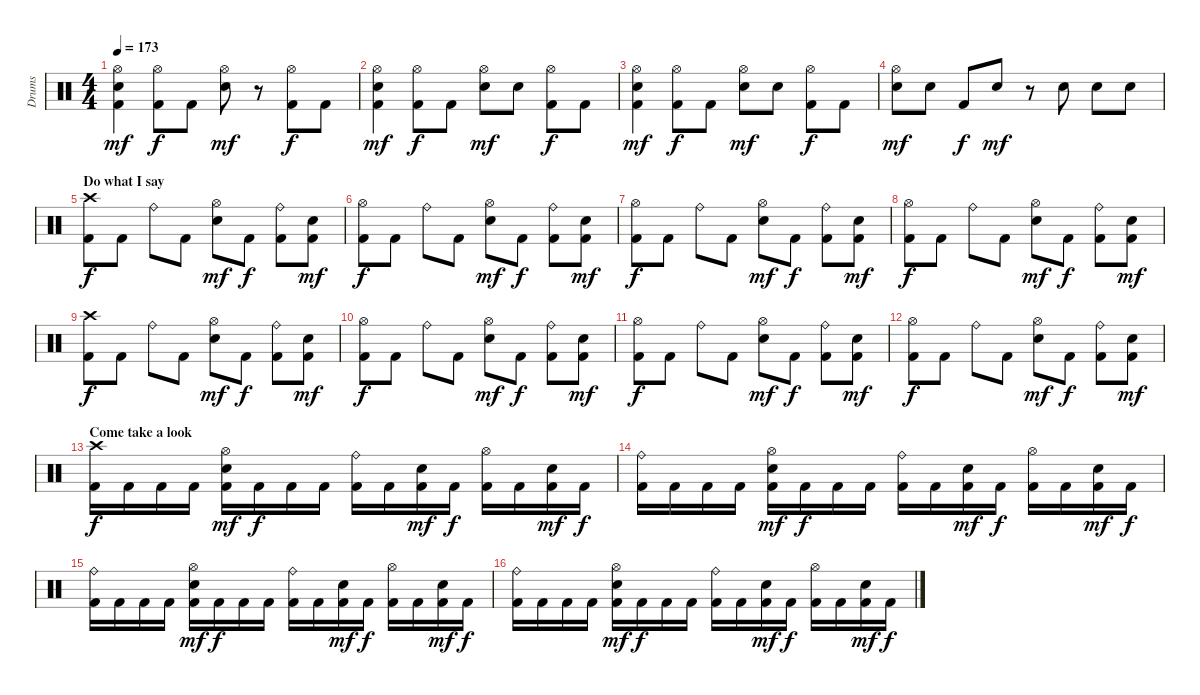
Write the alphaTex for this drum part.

\track ("Drums" "Drums") {instrument percussion}
\staff {score}
\articulation defaults
\ts (4 4)
\tempo 173
\clef neutral
\ks c
("Hi-Hat (open)" "Snare (hit) 2" "Kick (hit) 2").4{dy mf} ("Hi-Hat (open)" "Kick (hit) 2").8{dy f} "Kick (hit) 2".8 ("Hi-Hat (open)" "Snare (hit) 2").8{dy mf} r.8 ("Hi-Hat (open)" "Kick (hit) 2").8{dy f} "Kick (hit) 2".8 |
("Hi-Hat (open)" "Snare (hit) 2" "Kick (hit) 2").4{dy mf} ("Hi-Hat (open)" "Kick (hit) 2").8{dy f} "Kick (hit) 2".8 ("Hi-Hat (open)" "Snare (hit) 2").8{dy mf} "Snare (hit) 2".8 ("Hi-Hat (open)" "Kick (hit) 2").8{dy f} "Kick (hit) 2".8 |
("Hi-Hat (open)" "Snare (hit) 2" "Kick (hit) 2").4{dy mf} ("Hi-Hat (open)" "Kick (hit) 2").8{dy f} "Kick (hit) 2".8 ("Hi-Hat (open)" "Snare (hit) 2").8{dy mf} "Snare (hit) 2".8 ("Hi-Hat (open)" "Kick (hit) 2").8{dy f} "Kick (hit) 2".8 |
("Hi-Hat (open)" "Snare (hit) 2").8{dy mf} "Snare (hit) 2".8 "Kick (hit) 2".8{dy f} "Snare (hit) 2".8{dy mf} r.8 "Snare (hit) 2".8 "Snare (hit) 2".8 "Snare (hit) 2".8 |
\section ("" "Do what I say")
("Crash high (hit)" "Kick (hit) 2").8{dy f} "Kick (hit) 2".8 "Ride (bell)".8 "Kick (hit) 2".8 ("Hi-Hat (open)" "Snare (hit) 2").8{dy mf} "Kick (hit) 2".8{dy f} ("Ride (bell)" "Kick (hit) 2").8 ("Snare (hit) 2" "Kick (hit) 2").8{dy mf} |
("Hi-Hat (open)" "Kick (hit) 2").8{dy f} "Kick (hit) 2".8 "Ride (bell)".8 "Kick (hit) 2".8 ("Hi-Hat (open)" "Snare (hit) 2").8{dy mf} "Kick (hit) 2".8{dy f} ("Ride (bell)" "Kick (hit) 2").8 ("Snare (hit) 2" "Kick (hit) 2").8{dy mf} |
("Hi-Hat (open)" "Kick (hit) 2").8{dy f} "Kick (hit) 2".8 "Ride (bell)".8 "Kick (hit) 2".8 ("Hi-Hat (open)" "Snare (hit) 2").8{dy mf} "Kick (hit) 2".8{dy f} ("Ride (bell)" "Kick (hit) 2").8 ("Snare (hit) 2" "Kick (hit) 2").8{dy mf} |
("Hi-Hat (open)" "Kick (hit) 2").8{dy f} "Kick (hit) 2".8 "Ride (bell)".8 "Kick (hit) 2".8 ("Hi-Hat (open)" "Snare (hit) 2").8{dy mf} "Kick (hit) 2".8{dy f} ("Ride (bell)" "Kick (hit) 2").8 ("Snare (hit) 2" "Kick (hit) 2").8{dy mf} |
("Crash high (hit)" "Kick (hit) 2").8{dy f} "Kick (hit) 2".8 "Ride (bell)".8 "Kick (hit) 2".8 ("Hi-Hat (open)" "Snare (hit) 2").8{dy mf} "Kick (hit) 2".8{dy f} ("Ride (bell)" "Kick (hit) 2").8 ("Snare (hit) 2" "Kick (hit) 2").8{dy mf} |
("Hi-Hat (open)" "Kick (hit) 2").8{dy f} "Kick (hit) 2".8 "Ride (bell)".8 "Kick (hit) 2".8 ("Hi-Hat (open)" "Snare (hit) 2").8{dy mf} "Kick (hit) 2".8{dy f} ("Ride (bell)" "Kick (hit) 2").8 ("Snare (hit) 2" "Kick (hit) 2").8{dy mf} |
("Hi-Hat (open)" "Kick (hit) 2").8{dy f} "Kick (hit) 2".8 "Ride (bell)".8 "Kick (hit) 2".8 ("Hi-Hat (open)" "Snare (hit) 2").8{dy mf} "Kick (hit) 2".8{dy f} ("Ride (bell)" "Kick (hit) 2").8 ("Snare (hit) 2" "Kick (hit) 2").8{dy mf} |
("Hi-Hat (open)" "Kick (hit) 2").8{dy f} "Kick (hit) 2".8 "Ride (bell)".8 "Kick (hit) 2".8 ("Hi-Hat (open)" "Snare (hit) 2").8{dy mf} "Kick (hit) 2".8{dy f} ("Ride (bell)" "Kick (hit) 2").8 ("Snare (hit) 2" "Kick (hit) 2").8{dy mf} |
\section ("" "Come take a look")
("Crash high (hit)" "Kick (hit) 2").16{dy f} "Kick (hit) 2".16 "Kick (hit) 2".16 "Kick (hit) 2".16 ("Hi-Hat (open)" "Snare (hit) 2" "Kick (hit) 2").16{dy mf} "Kick (hit) 2".16{dy f} "Kick (hit) 2".16 "Kick (hit) 2".16 ("Ride (bell)" "Kick (hit) 2").16 "Kick (hit) 2".16 ("Snare (hit) 2" "Kick (hit) 2").16{dy mf} "Kick (hit) 2".16{dy f} ("Hi-Hat (open)" "Kick (hit) 2").16 "Kick (hit) 2".16 ("Snare (hit) 2" "Kick (hit) 2").16{dy mf} "Kick (hit) 2".16{dy f} |
("Ride (bell)" "Kick (hit) 2").16 "Kick (hit) 2".16 "Kick (hit) 2".16 "Kick (hit) 2".16 ("Hi-Hat (open)" "Snare (hit) 2" "Kick (hit) 2").16{dy mf} "Kick (hit) 2".16{dy f} "Kick (hit) 2".16 "Kick (hit) 2".16 ("Ride (bell)" "Kick (hit) 2").16 "Kick (hit) 2".16 ("Snare (hit) 2" "Kick (hit) 2").16{dy mf} "Kick (hit) 2".16{dy f} ("Hi-Hat (open)" "Kick (hit) 2").16 "Kick (hit) 2".16 ("Snare (hit) 2" "Kick (hit) 2").16{dy mf} "Kick (hit) 2".16{dy f} |
("Ride (bell)" "Kick (hit) 2").16 "Kick (hit) 2".16 "Kick (hit) 2".16 "Kick (hit) 2".16 ("Hi-Hat (open)" "Snare (hit) 2" "Kick (hit) 2").16{dy mf} "Kick (hit) 2".16{dy f} "Kick (hit) 2".16 "Kick (hit) 2".16 ("Ride (bell)" "Kick (hit) 2").16 "Kick (hit) 2".16 ("Snare (hit) 2" "Kick (hit) 2").16{dy mf} "Kick (hit) 2".16{dy f} ("Hi-Hat (open)" "Kick (hit) 2").16 "Kick (hit) 2".16 ("Snare (hit) 2" "Kick (hit) 2").16{dy mf} "Kick (hit) 2".16{dy f} |
("Ride (bell)" "Kick (hit) 2").16 "Kick (hit) 2".16 "Kick (hit) 2".16 "Kick (hit) 2".16 ("Hi-Hat (open)" "Snare (hit) 2" "Kick (hit) 2").16{dy mf} "Kick (hit) 2".16{dy f} "Kick (hit) 2".16 "Kick (hit) 2".16 ("Ride (bell)" "Kick (hit) 2").16 "Kick (hit) 2".16 ("Snare (hit) 2" "Kick (hit) 2").16{dy mf} "Kick (hit) 2".16{dy f} ("Hi-Hat (open)" "Kick (hit) 2").16 "Kick (hit) 2".16 ("Snare (hit) 2" "Kick (hit) 2").16{dy mf} "Kick (hit) 2".16{dy f}
